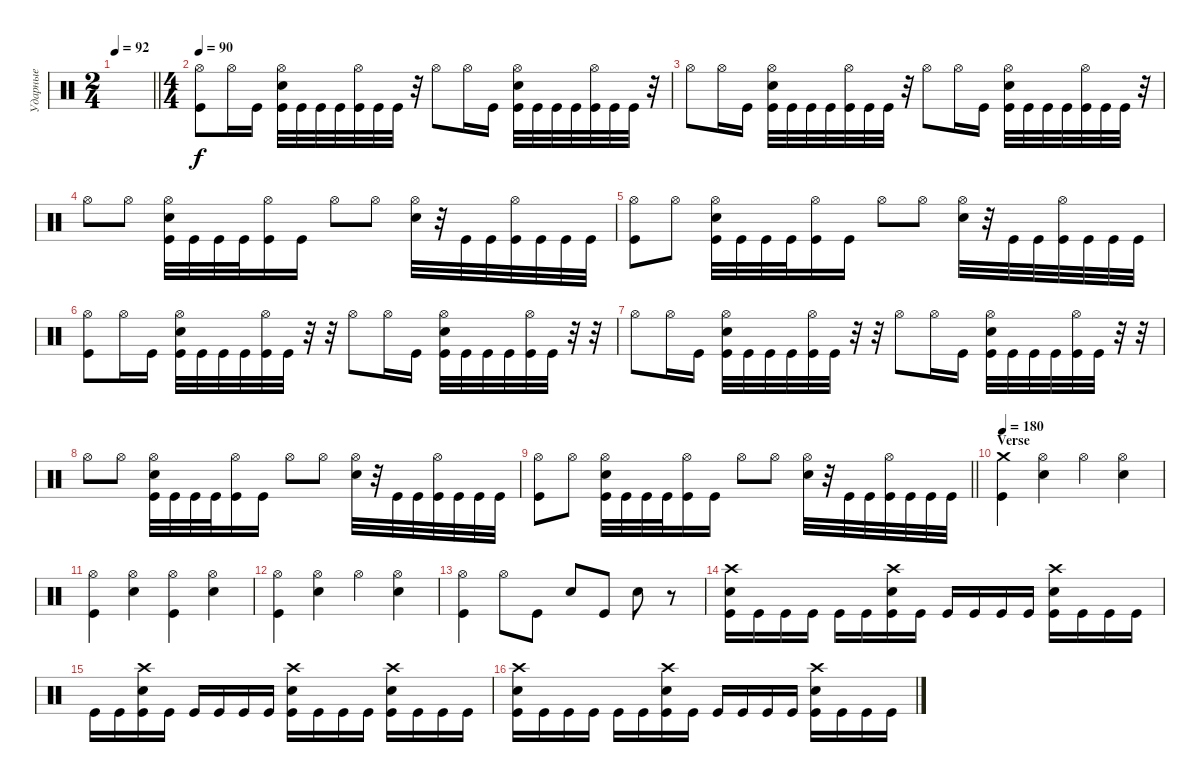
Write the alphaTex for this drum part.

\track ("Ударные" "Ударные") {instrument percussion}
\staff {score}
\articulation defaults
\ts (2 4)
\tempo 92
\clef neutral
\barLineRight lightlight
\ks c
|
\ts (4 4)
\section ("" "")
\tempo 90
("Hi-Hat (open)" "Kick (hit)").8 "Hi-Hat (open)".16 "Kick (hit)".16 ("Hi-Hat (open)" "Electric Snare (hit)" "Kick (hit)").32 "Kick (hit)".32 "Kick (hit)".32 "Kick (hit)".32 ("Hi-Hat (open)" "Kick (hit)").32 "Kick (hit)".32 "Kick (hit)".32 r.32 "Hi-Hat (open)".8 "Hi-Hat (open)".16 "Kick (hit)".16 ("Hi-Hat (open)" "Electric Snare (hit)" "Kick (hit)").32 "Kick (hit)".32 "Kick (hit)".32 "Kick (hit)".32 ("Hi-Hat (open)" "Kick (hit)").32 "Kick (hit)".32 "Kick (hit)".32 r.32 |
"Hi-Hat (open)".8 "Hi-Hat (open)".16 "Kick (hit)".16 ("Hi-Hat (open)" "Electric Snare (hit)" "Kick (hit)").32 "Kick (hit)".32 "Kick (hit)".32 "Kick (hit)".32 ("Hi-Hat (open)" "Kick (hit)").32 "Kick (hit)".32 "Kick (hit)".32 r.32 "Hi-Hat (open)".8 "Hi-Hat (open)".16 "Kick (hit)".16 ("Hi-Hat (open)" "Electric Snare (hit)" "Kick (hit)").32 "Kick (hit)".32 "Kick (hit)".32 "Kick (hit)".32 ("Hi-Hat (open)" "Kick (hit)").32 "Kick (hit)".32 "Kick (hit)".32 r.32 |
"Hi-Hat (open)".8 "Hi-Hat (open)".8 ("Hi-Hat (open)" "Electric Snare (hit)" "Kick (hit)").32 "Kick (hit)".32 "Kick (hit)".32 "Kick (hit)".32 ("Hi-Hat (open)" "Kick (hit)").16 "Kick (hit)".16 "Hi-Hat (open)".8 "Hi-Hat (open)".8 ("Hi-Hat (open)" "Electric Snare (hit)").32 r.32 "Kick (hit)".32 "Kick (hit)".32 ("Hi-Hat (open)" "Kick (hit)").32 "Kick (hit)".32 "Kick (hit)".32 "Kick (hit)".32 |
("Hi-Hat (open)" "Kick (hit)").8 "Hi-Hat (open)".8 ("Hi-Hat (open)" "Electric Snare (hit)" "Kick (hit)").32 "Kick (hit)".32 "Kick (hit)".32 "Kick (hit)".32 ("Hi-Hat (open)" "Kick (hit)").16 "Kick (hit)".16 "Hi-Hat (open)".8 "Hi-Hat (open)".8 ("Hi-Hat (open)" "Electric Snare (hit)").32 r.32 "Kick (hit)".32 "Kick (hit)".32 ("Hi-Hat (open)" "Kick (hit)").32 "Kick (hit)".32 "Kick (hit)".32 "Kick (hit)".32 |
("Hi-Hat (open)" "Kick (hit)").8 "Hi-Hat (open)".16 "Kick (hit)".16 ("Hi-Hat (open)" "Electric Snare (hit)" "Kick (hit)").32 "Kick (hit)".32 "Kick (hit)".32 "Kick (hit)".32 ("Hi-Hat (open)" "Kick (hit)").32 "Kick (hit)".32 r.32 r.32 "Hi-Hat (open)".8 "Hi-Hat (open)".16 "Kick (hit)".16 ("Hi-Hat (open)" "Electric Snare (hit)" "Kick (hit)").32 "Kick (hit)".32 "Kick (hit)".32 "Kick (hit)".32 ("Hi-Hat (open)" "Kick (hit)").32 "Kick (hit)".32 r.32 r.32 |
"Hi-Hat (open)".8 "Hi-Hat (open)".16 "Kick (hit)".16 ("Hi-Hat (open)" "Electric Snare (hit)" "Kick (hit)").32 "Kick (hit)".32 "Kick (hit)".32 "Kick (hit)".32 ("Hi-Hat (open)" "Kick (hit)").32 "Kick (hit)".32 r.32 r.32 "Hi-Hat (open)".8 "Hi-Hat (open)".16 "Kick (hit)".16 ("Hi-Hat (open)" "Electric Snare (hit)" "Kick (hit)").32 "Kick (hit)".32 "Kick (hit)".32 "Kick (hit)".32 ("Hi-Hat (open)" "Kick (hit)").32 "Kick (hit)".32 r.32 r.32 |
"Hi-Hat (open)".8 "Hi-Hat (open)".8 ("Hi-Hat (open)" "Electric Snare (hit)" "Kick (hit)").32 "Kick (hit)".32 "Kick (hit)".32 "Kick (hit)".32 ("Hi-Hat (open)" "Kick (hit)").16 "Kick (hit)".16 "Hi-Hat (open)".8 "Hi-Hat (open)".8 ("Hi-Hat (open)" "Electric Snare (hit)").32 r.32 "Kick (hit)".32 "Kick (hit)".32 ("Hi-Hat (open)" "Kick (hit)").32 "Kick (hit)".32 "Kick (hit)".32 "Kick (hit)".32 |
\barLineRight lightlight
("Hi-Hat (open)" "Kick (hit)").8 "Hi-Hat (open)".8 ("Hi-Hat (open)" "Electric Snare (hit)" "Kick (hit)").32 "Kick (hit)".32 "Kick (hit)".32 "Kick (hit)".32 ("Hi-Hat (open)" "Kick (hit)").16 "Kick (hit)".16 "Hi-Hat (open)".8 "Hi-Hat (open)".8 ("Hi-Hat (open)" "Electric Snare (hit)").32 r.32 "Kick (hit)".32 "Kick (hit)".32 ("Hi-Hat (open)" "Kick (hit)").32 "Kick (hit)".32 "Kick (hit)".32 "Kick (hit)".32 |
\section ("" "Verse")
\tempo 180
("Crash medium (hit)" "Kick (hit)").4 ("Hi-Hat (open)" "Electric Snare (hit)").4 "Hi-Hat (open)".4 ("Hi-Hat (open)" "Electric Snare (hit)").4 |
("Hi-Hat (open)" "Kick (hit)").4 ("Hi-Hat (open)" "Electric Snare (hit)").4 ("Hi-Hat (open)" "Kick (hit)").4 ("Hi-Hat (open)" "Electric Snare (hit)").4 |
("Hi-Hat (open)" "Kick (hit)").4 ("Hi-Hat (open)" "Electric Snare (hit)").4 "Hi-Hat (open)".4 ("Hi-Hat (open)" "Electric Snare (hit)").4 |
("Hi-Hat (open)" "Kick (hit)").4 "Hi-Hat (open)".8 "Kick (hit)".8 "Electric Snare (hit)".8 "Kick (hit)".8 "Electric Snare (hit)".8 r.8 |
("Crash high (hit)" "Electric Snare (hit)" "Kick (hit)").16 "Kick (hit)".16 "Kick (hit)".16 "Kick (hit)".16 "Kick (hit)".16 "Kick (hit)".16 ("Crash high (hit)" "Electric Snare (hit)" "Kick (hit)").16 "Kick (hit)".16 "Kick (hit)".16 "Kick (hit)".16 "Kick (hit)".16 "Kick (hit)".16 ("Crash high (hit)" "Electric Snare (hit)" "Kick (hit)").16 "Kick (hit)".16 "Kick (hit)".16 "Kick (hit)".16 |
"Kick (hit)".16 "Kick (hit)".16 ("Crash high (hit)" "Electric Snare (hit)" "Kick (hit)").16 "Kick (hit)".16 "Kick (hit)".16 "Kick (hit)".16 "Kick (hit)".16 "Kick (hit)".16 ("Crash high (hit)" "Electric Snare (hit)" "Kick (hit)").16 "Kick (hit)".16 "Kick (hit)".16 "Kick (hit)".16 ("Crash high (hit)" "Electric Snare (hit)" "Kick (hit)").16 "Kick (hit)".16 "Kick (hit)".16 "Kick (hit)".16 |
("Crash high (hit)" "Electric Snare (hit)" "Kick (hit)").16 "Kick (hit)".16 "Kick (hit)".16 "Kick (hit)".16 "Kick (hit)".16 "Kick (hit)".16 ("Crash high (hit)" "Electric Snare (hit)" "Kick (hit)").16 "Kick (hit)".16 "Kick (hit)".16 "Kick (hit)".16 "Kick (hit)".16 "Kick (hit)".16 ("Crash high (hit)" "Electric Snare (hit)" "Kick (hit)").16 "Kick (hit)".16 "Kick (hit)".16 "Kick (hit)".16
